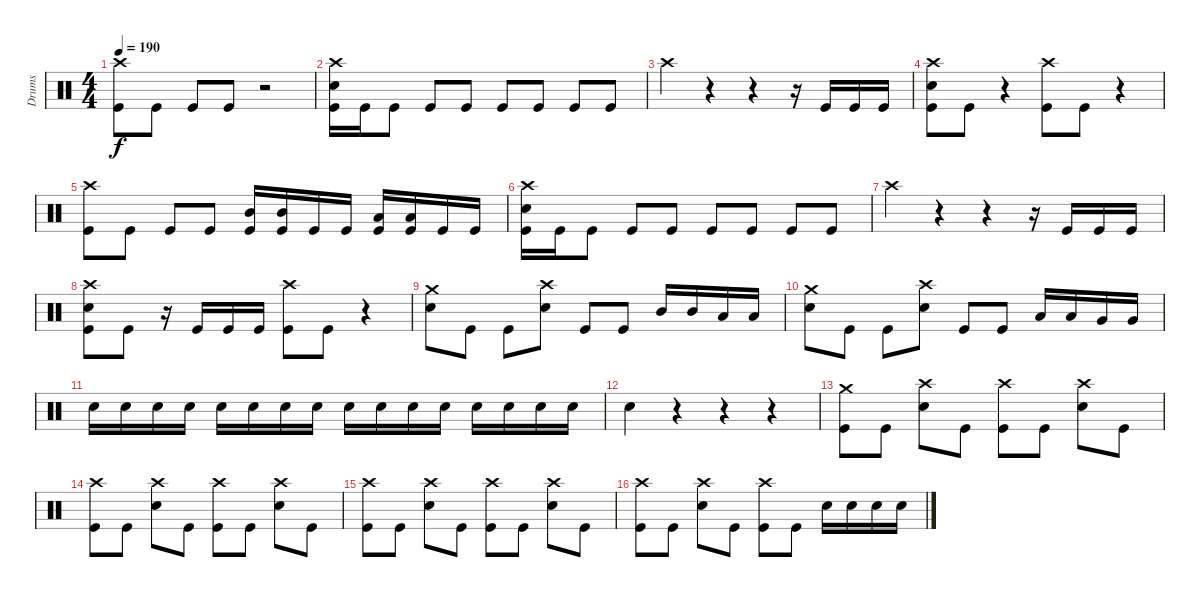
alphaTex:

\track ("Drums" "Drums") {instrument percussion}
\staff {score}
\articulation defaults
\ts (4 4)
\tempo 190
\clef neutral
\ks c
("Crash high (hit)" "Kick (hit)").8{dy f} "Kick (hit)".8 "Kick (hit)".8 "Kick (hit)".8 r.2 |
("Crash high (hit)" "Snare (hit) 2" "Kick (hit)").16 "Kick (hit)".16 "Kick (hit)".8 "Kick (hit)".8 "Kick (hit)".8 "Kick (hit)".8 "Kick (hit)".8 "Kick (hit)".8 "Kick (hit)".8 |
"Crash high (hit)".4 r.4 r.4 r.16 "Kick (hit)".16 "Kick (hit)".16 "Kick (hit)".16 |
("Crash high (hit)" "Snare (hit) 2" "Kick (hit)").8 "Kick (hit)".8 r.4 ("Crash high (hit)" "Kick (hit)").8 "Kick (hit)".8 r.4 |
("Crash high (hit)" "Kick (hit)").8 "Kick (hit)".8 "Kick (hit)".8 "Kick (hit)".8 ("Mid Tom (hit)" "Kick (hit)").16 ("Mid Tom (hit)" "Kick (hit)").16 "Kick (hit)".16 "Kick (hit)".16 ("Low Tom (hit)" "Kick (hit)").16 ("Low Tom (hit)" "Kick (hit)").16 "Kick (hit)".16 "Kick (hit)".16 |
("Crash high (hit)" "Snare (hit) 2" "Kick (hit)").16 "Kick (hit)".16 "Kick (hit)".8 "Kick (hit)".8 "Kick (hit)".8 "Kick (hit)".8 "Kick (hit)".8 "Kick (hit)".8 "Kick (hit)".8 |
"Crash high (hit)".4 r.4 r.4 r.16 "Kick (hit)".16 "Kick (hit)".16 "Kick (hit)".16 |
("Crash high (hit)" "Snare (hit) 2" "Kick (hit)").8 "Kick (hit)".8 r.16 "Kick (hit)".16 "Kick (hit)".16 "Kick (hit)".16 ("Crash high (hit)" "Kick (hit)").8 "Kick (hit)".8 r.4 |
("Crash medium (hit)" "Snare (hit) 2").8 "Kick (hit)".8 "Kick (hit)".8 ("Crash high (hit)" "Snare (hit) 2").8 "Kick (hit)".8 "Kick (hit)".8 "Mid Tom (hit)".16 "Mid Tom (hit)".16 "Low Tom (hit)".16 "Low Tom (hit)".16 |
("Crash medium (hit)" "Snare (hit) 2").8 "Kick (hit)".8 "Kick (hit)".8 ("Crash high (hit)" "Snare (hit) 2").8 "Kick (hit)".8 "Kick (hit)".8 "Low Tom (hit)".16 "Low Tom (hit)".16 "Very Low Tom (hit)".16 "Very Low Tom (hit)".16 |
"Snare (hit) 2".16 "Snare (hit) 2".16 "Snare (hit) 2".16 "Snare (hit) 2".16 "Snare (hit) 2".16 "Snare (hit) 2".16 "Snare (hit) 2".16 "Snare (hit) 2".16 "Snare (hit) 2".16 "Snare (hit) 2".16 "Snare (hit) 2".16 "Snare (hit) 2".16 "Snare (hit) 2".16 "Snare (hit) 2".16 "Snare (hit) 2".16 "Snare (hit) 2".16 |
"Snare (hit) 2".4 r.4 r.4 r.4 |
("Crash medium (hit)" "Kick (hit)").8 "Kick (hit)".8 ("Crash high (hit)" "Snare (hit) 2").8 "Kick (hit)".8 ("Crash high (hit)" "Kick (hit)").8 "Kick (hit)".8 ("Crash high (hit)" "Snare (hit) 2").8 "Kick (hit)".8 |
("Crash high (hit)" "Kick (hit)").8 "Kick (hit)".8 ("Crash high (hit)" "Snare (hit) 2").8 "Kick (hit)".8 ("Crash high (hit)" "Kick (hit)").8 "Kick (hit)".8 ("Crash high (hit)" "Snare (hit) 2").8 "Kick (hit)".8 |
("Crash high (hit)" "Kick (hit)").8 "Kick (hit)".8 ("Crash high (hit)" "Snare (hit) 2").8 "Kick (hit)".8 ("Crash high (hit)" "Kick (hit)").8 "Kick (hit)".8 ("Crash high (hit)" "Snare (hit) 2").8 "Kick (hit)".8 |
("Crash high (hit)" "Kick (hit)").8 "Kick (hit)".8 ("Crash high (hit)" "Snare (hit) 2").8 "Kick (hit)".8 ("Crash high (hit)" "Kick (hit)").8 "Kick (hit)".8 "Snare (hit) 2".16 "Snare (hit) 2".16 "Snare (hit) 2".16 "Snare (hit) 2".16
